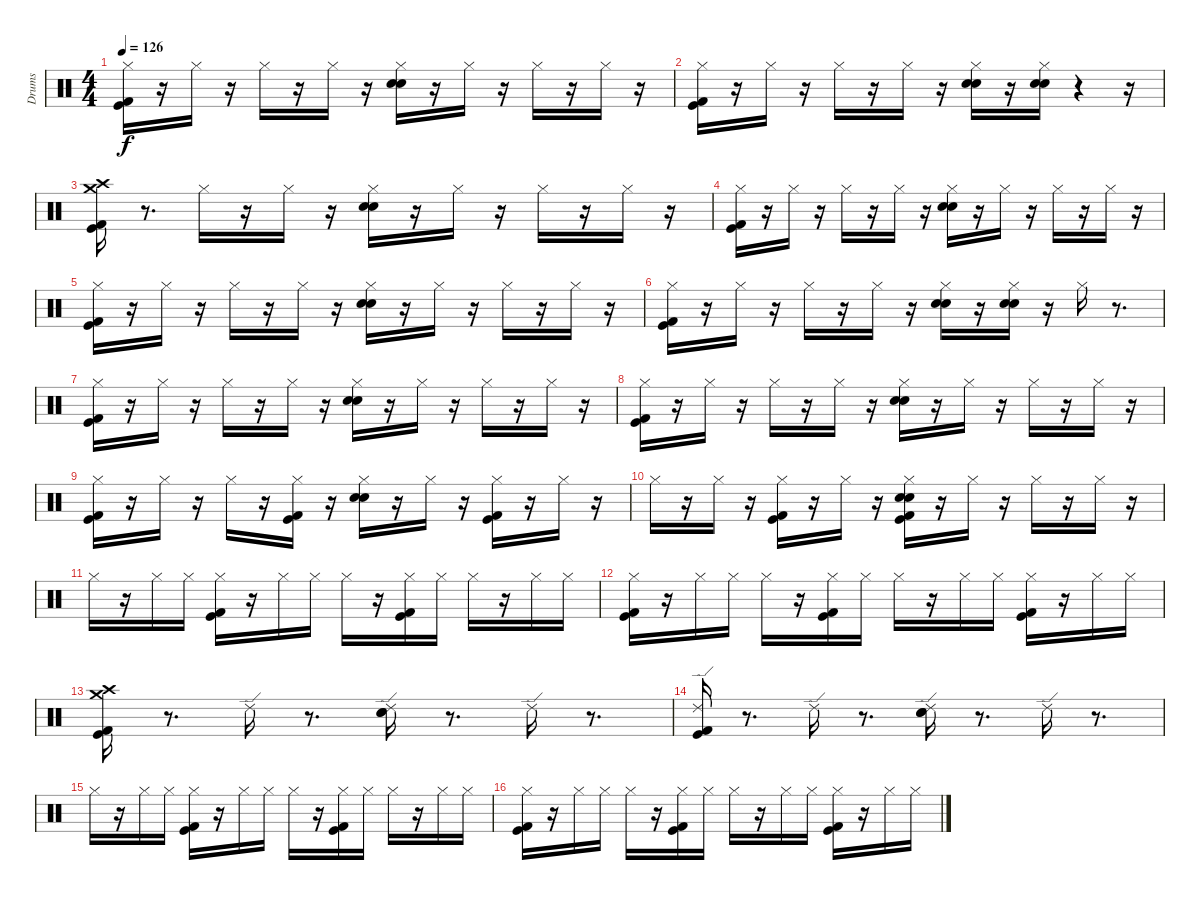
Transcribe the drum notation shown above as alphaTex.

\track ("Drums" "Drums") {instrument percussion}
\staff {score}
\articulation defaults
\ts (4 4)
\tempo 126
\clef neutral
\ks c
("Hi-Hat (closed)" "Kick (hit) 2" "Kick (hit)").16{dy f} r.16 "Hi-Hat (closed)".16 r.16 "Hi-Hat (closed)".16 r.16 "Hi-Hat (closed)".16 r.16 ("Electric Snare (hit)" "Snare (hit) 2" "Hi-Hat (closed)").16 r.16 "Hi-Hat (closed)".16 r.16 "Hi-Hat (closed)".16 r.16 "Hi-Hat (closed)".16 r.16 |
("Hi-Hat (closed)" "Kick (hit) 2" "Kick (hit)").16 r.16 "Hi-Hat (closed)".16 r.16 "Hi-Hat (closed)".16 r.16 "Hi-Hat (closed)".16 r.16 ("Electric Snare (hit)" "Snare (hit) 2" "Hi-Hat (closed)").16 r.16 ("Electric Snare (hit)" "Snare (hit) 2" "Hi-Hat (closed)").16 r.4 r.16 |
("Crash high (hit)" "Crash medium (hit)" "Kick (hit) 2" "Kick (hit)").16 r.8{d} "Hi-Hat (closed)".16 r.16 "Hi-Hat (closed)".16 r.16 ("Electric Snare (hit)" "Snare (hit) 2" "Hi-Hat (closed)").16 r.16 "Hi-Hat (closed)".16 r.16 "Hi-Hat (closed)".16 r.16 "Hi-Hat (closed)".16 r.16 |
("Hi-Hat (closed)" "Kick (hit) 2" "Kick (hit)").16 r.16 "Hi-Hat (closed)".16 r.16 "Hi-Hat (closed)".16 r.16 "Hi-Hat (closed)".16 r.16 ("Electric Snare (hit)" "Snare (hit) 2" "Hi-Hat (closed)").16 r.16 "Hi-Hat (closed)".16 r.16 "Hi-Hat (closed)".16 r.16 "Hi-Hat (closed)".16 r.16 |
("Hi-Hat (closed)" "Kick (hit) 2" "Kick (hit)").16 r.16 "Hi-Hat (closed)".16 r.16 "Hi-Hat (closed)".16 r.16 "Hi-Hat (closed)".16 r.16 ("Electric Snare (hit)" "Snare (hit) 2" "Hi-Hat (closed)").16 r.16 "Hi-Hat (closed)".16 r.16 "Hi-Hat (closed)".16 r.16 "Hi-Hat (closed)".16 r.16 |
("Hi-Hat (closed)" "Kick (hit) 2" "Kick (hit)").16 r.16 "Hi-Hat (closed)".16 r.16 "Hi-Hat (closed)".16 r.16 "Hi-Hat (closed)".16 r.16 ("Electric Snare (hit)" "Snare (hit) 2" "Hi-Hat (closed)").16 r.16 ("Electric Snare (hit)" "Snare (hit) 2" "Hi-Hat (closed)").16 r.16 "Hi-Hat (closed)".16 r.8{d} |
("Hi-Hat (closed)" "Kick (hit) 2" "Kick (hit)").16 r.16 "Hi-Hat (closed)".16 r.16 "Hi-Hat (closed)".16 r.16 "Hi-Hat (closed)".16 r.16 ("Electric Snare (hit)" "Snare (hit) 2" "Hi-Hat (closed)").16 r.16 "Hi-Hat (closed)".16 r.16 "Hi-Hat (closed)".16 r.16 "Hi-Hat (closed)".16 r.16 |
("Hi-Hat (closed)" "Kick (hit) 2" "Kick (hit)").16 r.16 "Hi-Hat (closed)".16 r.16 "Hi-Hat (closed)".16 r.16 "Hi-Hat (closed)".16 r.16 ("Electric Snare (hit)" "Snare (hit) 2" "Hi-Hat (closed)").16 r.16 "Hi-Hat (closed)".16 r.16 "Hi-Hat (closed)".16 r.16 "Hi-Hat (closed)".16 r.16 |
("Hi-Hat (closed)" "Kick (hit) 2" "Kick (hit)").16 r.16 "Hi-Hat (closed)".16 r.16 "Hi-Hat (closed)".16 r.16 ("Kick (hit)" "Kick (hit) 2" "Hi-Hat (closed)").16 r.16 ("Electric Snare (hit)" "Snare (hit) 2" "Hi-Hat (closed)").16 r.16 "Hi-Hat (closed)".16 r.16 ("Kick (hit) 2" "Kick (hit)" "Hi-Hat (closed)").16 r.16 "Hi-Hat (closed)".16 r.16 |
"Hi-Hat (closed)".16 r.16 "Hi-Hat (closed)".16 r.16 ("Kick (hit) 2" "Kick (hit)" "Hi-Hat (closed)").16 r.16 "Hi-Hat (closed)".16 r.16 ("Kick (hit) 2" "Kick (hit)" "Electric Snare (hit)" "Snare (hit) 2" "Hi-Hat (closed)").16 r.16 "Hi-Hat (closed)".16 r.16 "Hi-Hat (closed)".16 r.16 "Hi-Hat (closed)".16 r.16 |
"Hi-Hat (closed)".16 r.16 "Hi-Hat (closed)".16 "Hi-Hat (closed)".16 ("Kick (hit) 2" "Kick (hit)" "Hi-Hat (closed)").16 r.16 "Hi-Hat (closed)".16 "Hi-Hat (closed)".16 "Hi-Hat (closed)".16 r.16 ("Kick (hit) 2" "Kick (hit)" "Hi-Hat (closed)").16 "Hi-Hat (closed)".16 "Hi-Hat (closed)".16 r.16 "Hi-Hat (closed)".16 "Hi-Hat (closed)".16 |
("Kick (hit) 2" "Kick (hit)" "Hi-Hat (closed)").16 r.16 "Hi-Hat (closed)".16 "Hi-Hat (closed)".16 "Hi-Hat (closed)".16 r.16 ("Kick (hit) 2" "Kick (hit)" "Hi-Hat (closed)").16 "Hi-Hat (closed)".16 "Hi-Hat (closed)".16 r.16 "Hi-Hat (closed)".16 "Hi-Hat (closed)".16 ("Kick (hit) 2" "Kick (hit)" "Hi-Hat (closed)").16 r.16 "Hi-Hat (closed)".16 "Hi-Hat (closed)".16 |
("Crash high (hit)" "Crash medium (hit)" "Kick (hit) 2" "Kick (hit)").16 r.8{d} "Ride (edge) 2".16 r.8{d} ("Electric Snare (hit)" "Snare (hit) 2" "Ride (edge) 2").16 r.8{d} "Ride (edge) 2".16 r.8{d} |
("Ride (edge) 2" "Kick (hit) 2" "Kick (hit)").16 r.8{d} "Ride (edge) 2".16 r.8{d} ("Ride (edge) 2" "Electric Snare (hit)" "Snare (hit) 2").16 r.8{d} "Ride (edge) 2".16 r.8{d} |
"Hi-Hat (closed)".16 r.16 "Hi-Hat (closed)".16 "Hi-Hat (closed)".16 ("Kick (hit) 2" "Kick (hit)" "Hi-Hat (closed)").16 r.16 "Hi-Hat (closed)".16 "Hi-Hat (closed)".16 "Hi-Hat (closed)".16 r.16 ("Kick (hit) 2" "Kick (hit)" "Hi-Hat (closed)").16 "Hi-Hat (closed)".16 "Hi-Hat (closed)".16 r.16 "Hi-Hat (closed)".16 "Hi-Hat (closed)".16 |
("Kick (hit) 2" "Kick (hit)" "Hi-Hat (closed)").16 r.16 "Hi-Hat (closed)".16 "Hi-Hat (closed)".16 "Hi-Hat (closed)".16 r.16 ("Kick (hit) 2" "Kick (hit)" "Hi-Hat (closed)").16 "Hi-Hat (closed)".16 "Hi-Hat (closed)".16 r.16 "Hi-Hat (closed)".16 "Hi-Hat (closed)".16 ("Kick (hit) 2" "Kick (hit)" "Hi-Hat (closed)").16 r.16 "Hi-Hat (closed)".16 "Hi-Hat (closed)".16
